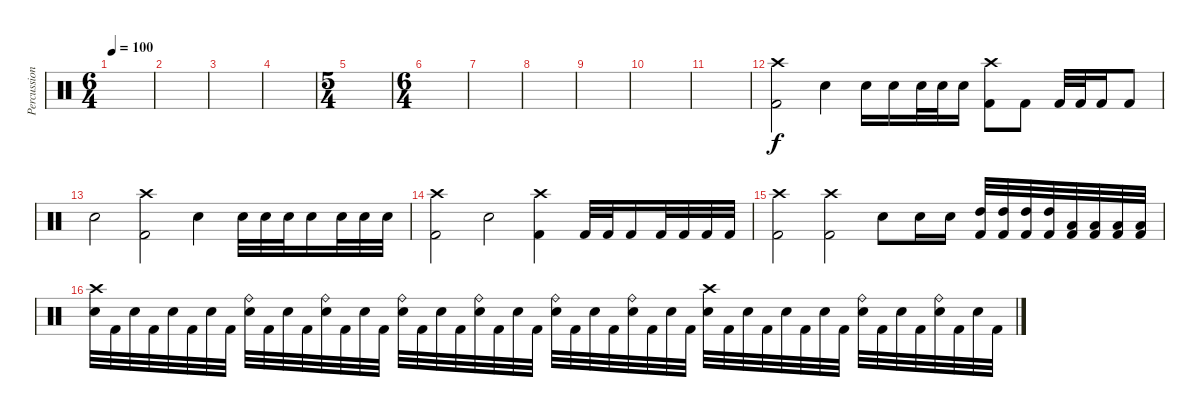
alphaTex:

\track ("Percussion" "Percussion") {instrument percussion}
\staff {score}
\articulation defaults
\ts (6 4)
\tempo 100
\clef neutral
\ks c
|
|
|
|
\ts (5 4)
|
\ts (6 4)
|
|
|
|
|
|
("Crash high (hit)" "Kick (hit) 2").2 "Electric Snare (hit)".4 "Electric Snare (hit)".16 "Electric Snare (hit)".16 "Electric Snare (hit)".32 "Electric Snare (hit)".32 "Electric Snare (hit)".16 ("Crash high (hit)" "Kick (hit) 2").8 "Kick (hit) 2".8 "Kick (hit) 2".32 "Kick (hit) 2".32 "Kick (hit) 2".16 "Kick (hit) 2".8 |
"Electric Snare (hit)".2 ("Crash high (hit)" "Kick (hit) 2").2 "Electric Snare (hit)".4 "Electric Snare (hit)".32 "Electric Snare (hit)".32 "Electric Snare (hit)".32 "Electric Snare (hit)".16 "Electric Snare (hit)".32 "Electric Snare (hit)".32 "Electric Snare (hit)".32 |
("Crash high (hit)" "Kick (hit) 2").2 "Electric Snare (hit)".2 ("Crash high (hit)" "Kick (hit) 2").4 "Kick (hit) 2".32 "Kick (hit) 2".32 "Kick (hit) 2".16 "Kick (hit) 2".32 "Kick (hit) 2".32 "Kick (hit) 2".32 "Kick (hit) 2".32 |
("Crash high (hit)" "Kick (hit) 2").2 ("Crash high (hit)" "Kick (hit) 2").2 "Electric Snare (hit)".8 "Electric Snare (hit)".16 "Electric Snare (hit)".16 ("High Tom (hit)" "Kick (hit) 2").32 ("High Tom (hit)" "Kick (hit) 2").32 ("High Tom (hit)" "Kick (hit) 2").32 ("High Tom (hit)" "Kick (hit) 2").32 ("Low Tom (hit)" "Kick (hit) 2").32 ("Low Tom (hit)" "Kick (hit) 2").32 ("Low Floor Tom (hit)" "Kick (hit) 2").32 ("Low Floor Tom (hit)" "Kick (hit) 2").32 |
("Crash high (hit)" "Electric Snare (hit)").32 "Kick (hit) 2".32 "Electric Snare (hit)".32 "Kick (hit) 2".32 "Electric Snare (hit)".32 "Kick (hit) 2".32 "Electric Snare (hit)".32 "Kick (hit) 2".32 ("Ride (bell)" "Electric Snare (hit)").32 "Kick (hit) 2".32 "Electric Snare (hit)".32 "Kick (hit) 2".32 ("Ride (bell)" "Electric Snare (hit)").32 "Kick (hit) 2".32 "Electric Snare (hit)".32 "Kick (hit) 2".32 ("Ride (bell)" "Electric Snare (hit)").32 "Kick (hit) 2".32 "Electric Snare (hit)".32 "Kick (hit) 2".32 ("Ride (bell)" "Electric Snare (hit)").32 "Kick (hit) 2".32 "Electric Snare (hit)".32 "Kick (hit) 2".32 ("Ride (bell)" "Electric Snare (hit)").32 "Kick (hit) 2".32 "Electric Snare (hit)".32 "Kick (hit) 2".32 ("Ride (bell)" "Electric Snare (hit)").32 "Kick (hit) 2".32 "Electric Snare (hit)".32 "Kick (hit) 2".32 ("Crash high (hit)" "Electric Snare (hit)").32 "Kick (hit) 2".32 "Electric Snare (hit)".32 "Kick (hit) 2".32 "Electric Snare (hit)".32 "Kick (hit) 2".32 "Electric Snare (hit)".32 "Kick (hit) 2".32 ("Ride (bell)" "Electric Snare (hit)").32 "Kick (hit) 2".32 "Electric Snare (hit)".32 "Kick (hit) 2".32 ("Ride (bell)" "Electric Snare (hit)").32 "Kick (hit) 2".32 "Electric Snare (hit)".32 "Kick (hit) 2".32
